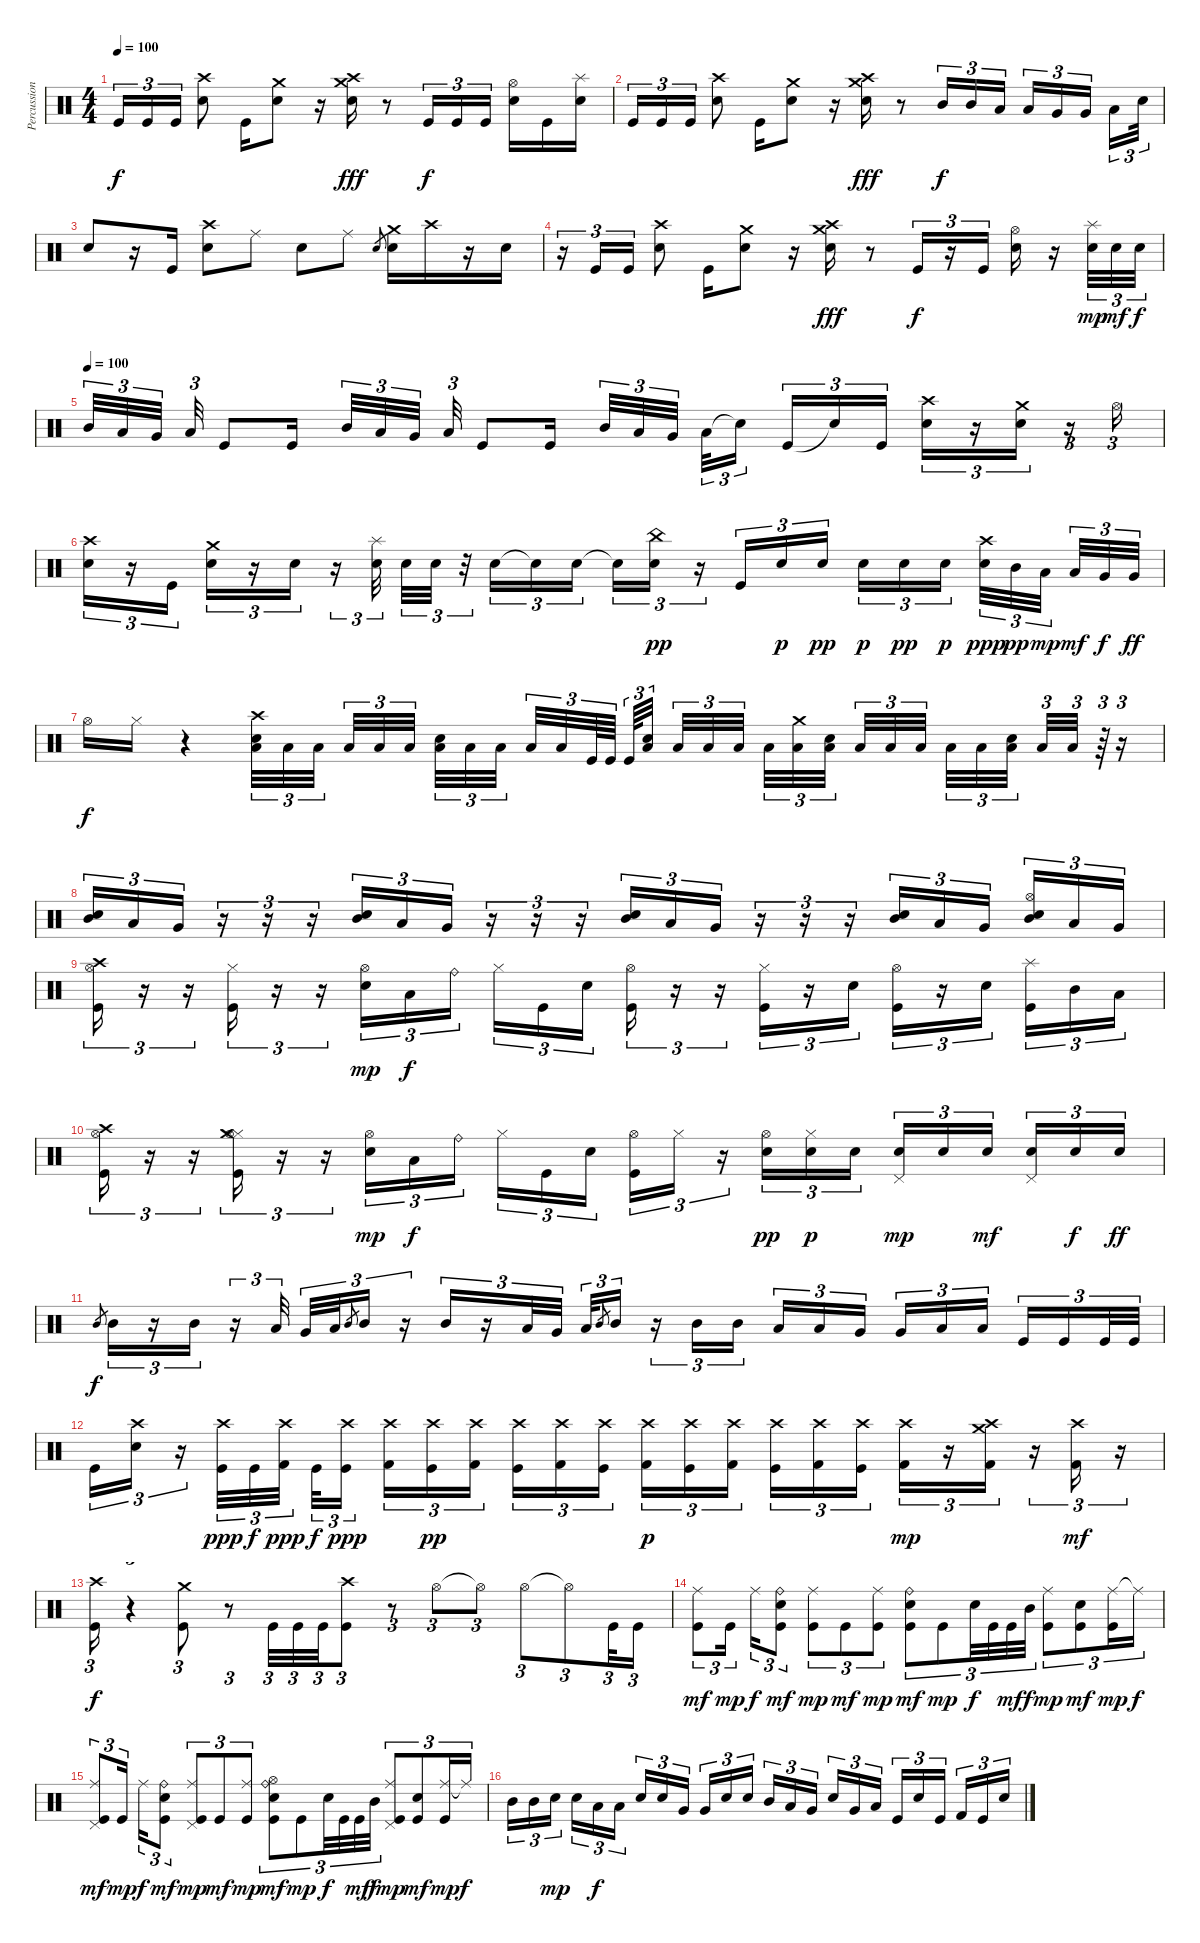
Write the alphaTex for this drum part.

\track ("Percussions" "Percussion") {instrument percussion}
\staff {score}
\articulation defaults
\ts (4 4)
\tempo 100
\clef neutral
\ks c "Kick (hit)".16{tu (3 2) dy f} "Kick (hit)".16{tu (3 2)} "Kick (hit)".16{tu (3 2)}
("Crash high (hit)" "Snare (hit) 2").8 "Kick (hit)".16 ("Crash medium (hit)" "Snare (hit) 2").8 r.16 ("Crash high (hit)" "Crash medium (hit)" "Snare (hit) 2").16{dy fff} r.8 "Kick (hit)".16{tu (3 2) dy f} "Kick (hit)".16{tu (3 2)} "Kick (hit)".16{tu (3 2)} ("Hi-Hat (open)" "Snare (hit) 2").16 "Kick (hit)".16 ("Splash (hit)" "Snare (hit) 2").16 |
"Kick (hit)".16{tu (3 2)} "Kick (hit)".16{tu (3 2)} "Kick (hit)".16{tu (3 2)} ("Crash high (hit)" "Snare (hit) 2").8 "Kick (hit)".16 ("Crash medium (hit)" "Snare (hit) 2").8 r.16 ("Crash high (hit)" "Crash medium (hit)" "Snare (hit) 2").16{dy fff} r.8 "Mid Tom (hit)".16{tu (3 2) dy f} "Mid Tom (hit)".16{tu (3 2)} "Low Tom (hit)".16{tu (3 2)} "Low Tom (hit)".16{tu (3 2)} "Very Low Tom (hit)".16{tu (3 2)} "Very Low Tom (hit)".16{tu (3 2)} "Low Floor Tom (hit)".16{tu (3 2)} "Snare (hit) 2".32{tu (3 2)} |
"Snare (hit) 2".8 r.16 "Kick (hit)".16 ("Crash high (hit)" "Snare (hit) 2").8 "Ride (middle)".8 "Snare (hit) 2".8 "Ride (middle)".8 "Snare (hit) 2".8{gr} ("Crash medium (hit)" "Snare (hit) 2").16 "Crash high (hit)".16 r.16 "Snare (hit) 2".16 |
r.16{tu (3 2)} "Kick (hit)".16{tu (3 2)} "Kick (hit)".16{tu (3 2)} ("Crash high (hit)" "Snare (hit) 2").8 "Kick (hit)".16 ("Crash medium (hit)" "Snare (hit) 2").8 r.16 ("Crash high (hit)" "Crash medium (hit)" "Snare (hit) 2").16{dy fff} r.8 "Kick (hit)".16{tu (3 2) dy f} r.16{tu (3 2)} "Kick (hit)".16{tu (3 2)} ("Hi-Hat (open)" "Snare (hit) 2").16 r.16 ("Splash (hit)" "Snare (hit) 2").32{tu (3 2) dy mp} "Snare (hit) 2".32{tu (3 2) dy mf} "Snare (hit) 2".32{tu (3 2) dy f} |
\tempo (100)
"Mid Tom (hit)".32{tu (3 2)} "Low Tom (hit)".32{tu (3 2)} "Very Low Tom (hit)".32{tu (3 2)} "Low Floor Tom (hit)".32{tu (3 2)} "Kick (hit)".8 "Kick (hit)".16 "Mid Tom (hit)".32{tu (3 2)} "Low Tom (hit)".32{tu (3 2)} "Very Low Tom (hit)".32{tu (3 2)} "Low Floor Tom (hit)".32{tu (3 2)} "Kick (hit)".8 "Kick (hit)".16 "Mid Tom (hit)".32{tu (3 2)} "Low Tom (hit)".32{tu (3 2)} "Very Low Tom (hit)".32{tu (3 2)} "Low Floor Tom (hit)".32{tu (3 2)} "Snare (hit)"{t}.16{tu (3 2)} "Kick (hit)".16{tu (3 2)} "Snare (hit)"{t}.16{tu (3 2)} "Kick (hit)".16{tu (3 2)} ("Crash high (hit)" "Snare (hit) 2").16{tu (3 2)} r.16{tu (3 2)} ("Crash medium (hit)" "Snare (hit) 2").16{tu (3 2)} r.16{tu (3 2)} "Hi-Hat (open)".16{tu (3 2)} |
("Crash high (hit)" "Snare (hit) 2").16{tu (3 2)} r.16{tu (3 2)} "Kick (hit)".16{tu (3 2)} ("Crash medium (hit)" "Snare (hit) 2").16{tu (3 2)} r.16{tu (3 2)} "Snare (hit) 2".16{tu (3 2)} r.16{tu (3 2)} ("Splash (hit)" "Snare (hit) 2").32{tu (3 2)} "Snare (hit) 2".32{tu (3 2)} "Snare (hit) 2".32{tu (3 2)} r.32{tu (3 2)} "Snare (hit) 2".16{tu (3 2)} "Snare (hit)"{t}.16{tu (3 2)} "Snare (hit) 2".16{tu (3 2)} "Snare (hit)"{t}.16{tu (3 2)} ("China (hit)" "Snare (hit) 2").16{tu (3 2) dy pp} r.16{tu (3 2)} "Kick (hit)".16{tu (3 2)} "Snare (hit) 2".16{tu (3 2) dy p} "Snare (hit) 2".16{tu (3 2) dy pp} "Snare (hit) 2".16{tu (3 2) dy p} "Snare (hit) 2".16{tu (3 2) dy pp} "Snare (hit) 2".16{tu (3 2) dy p} ("Crash high (hit)" "Snare (hit) 2").32{tu (3 2) dy ppp} "Mid Tom (hit)".32{tu (3 2) dy pp} "Low Tom (hit)".32{tu (3 2) dy mp} "Low Tom (hit)".32{tu (3 2) dy mf} "Very Low Tom (hit)".32{tu (3 2) dy f} "Very Low Tom (hit)".32{tu (3 2) dy ff} |
"Hi-Hat (open)".16{dy f} "Hi-Hat (closed)".16 r.4 ("Crash high (hit)" "Low Floor Tom (hit)" "Snare (hit) 2").32{tu (3 2)} "Low Floor Tom (hit)".32{tu (3 2)} "Low Floor Tom (hit)".32{tu (3 2)} "Low Floor Tom (hit)".32{tu (3 2)} "Low Floor Tom (hit)".32{tu (3 2)} "Low Floor Tom (hit)".32{tu (3 2)} ("Low Floor Tom (hit)" "Snare (hit) 2").32{tu (3 2)} "Low Floor Tom (hit)".32{tu (3 2)} "Low Floor Tom (hit)".32{tu (3 2)} "Low Floor Tom (hit)".32{tu (3 2)} "Low Floor Tom (hit)".32{tu (3 2)} "Kick (hit)".64{tu (3 2)} "Kick (hit)".64{tu (3 2)} "Kick (hit)".64{tu (3 2)} ("Low Floor Tom (hit)" "Snare (hit) 2").32{tu (3 2)} "Low Floor Tom (hit)".32{tu (3 2)} "Low Floor Tom (hit)".32{tu (3 2)} "Low Floor Tom (hit)".32{tu (3 2)} "Low Floor Tom (hit)".32{tu (3 2)} ("Crash medium (hit)" "Low Floor Tom (hit)").32{tu (3 2)} ("Low Floor Tom (hit)" "Snare (hit) 2").32{tu (3 2)} "Low Floor Tom (hit)".32{tu (3 2)} "Low Floor Tom (hit)".32{tu (3 2)} "Low Floor Tom (hit)".32{tu (3 2)} "Low Floor Tom (hit)".32{tu (3 2)} "Low Floor Tom (hit)".32{tu (3 2)} ("Low Floor Tom (hit)" "Snare (hit) 2").32{tu (3 2)} "Low Floor Tom (hit)".32{tu (3 2)} "Low Floor Tom (hit)".32{tu (3 2)} r.64{tu (3 2)} r.16{tu (3 2)} |
("Snare (hit) 2" "Mid Tom (hit)").16{tu (3 2)} "Low Tom (hit)".16{tu (3 2)} "Very Low Tom (hit)".16{tu (3 2)} r.16{tu (3 2)} r.16{tu (3 2)} r.16{tu (3 2)} ("Snare (hit) 2" "Mid Tom (hit)").16{tu (3 2)} "Low Tom (hit)".16{tu (3 2)} "Very Low Tom (hit)".16{tu (3 2)} r.16{tu (3 2)} r.16{tu (3 2)} r.16{tu (3 2)} ("Snare (hit) 2" "Mid Tom (hit)").16{tu (3 2)} "Low Tom (hit)".16{tu (3 2)} "Very Low Tom (hit)".16{tu (3 2)} r.16{tu (3 2)} r.16{tu (3 2)} r.16{tu (3 2)} ("Snare (hit) 2" "Mid Tom (hit)").16{tu (3 2)} "Low Tom (hit)".16{tu (3 2)} "Very Low Tom (hit)".16{tu (3 2)} ("Hi-Hat (open)" "Snare (hit) 2" "Mid Tom (hit)").16{tu (3 2)} "Low Tom (hit)".16{tu (3 2)} "Very Low Tom (hit)".16{tu (3 2)} |
("Hi-Hat (open)" "Crash high (hit)" "Kick (hit)").16{tu (3 2)} r.16{tu (3 2)} r.16{tu (3 2)} ("Hi-Hat (closed)" "Kick (hit)").16{tu (3 2)} r.16{tu (3 2)} r.16{tu (3 2)} ("Hi-Hat (open)" "Snare (hit) 2").16{tu (3 2) dy mp} "Low Tom (hit)".16{tu (3 2) dy f} "Ride (bell)".16{tu (3 2)} "Hi-Hat (closed)".16{tu (3 2)} "Kick (hit)".16{tu (3 2)} "Snare (hit) 2".16{tu (3 2)} ("Hi-Hat (open)" "Kick (hit)").16{tu (3 2)} r.16{tu (3 2)} r.16{tu (3 2)} ("Hi-Hat (closed)" "Kick (hit)").16{tu (3 2)} r.16{tu (3 2)} "Snare (hit) 2".16{tu (3 2)} ("Hi-Hat (open)" "Kick (hit)").16{tu (3 2)} r.16{tu (3 2)} "Snare (hit) 2".16{tu (3 2)} ("Splash (hit)" "Kick (hit)").16{tu (3 2)} "Mid Tom (hit)".16{tu (3 2)} "Low Tom (hit)".16{tu (3 2)} |
("Hi-Hat (open)" "Crash high (hit)" "Kick (hit)").16{tu (3 2)} r.16{tu (3 2)} r.16{tu (3 2)} ("Hi-Hat (closed)" "Crash medium (hit)" "Kick (hit)" "Hi-Hat (open)").16{tu (3 2)} r.16{tu (3 2)} r.16{tu (3 2)} ("Hi-Hat (open)" "Snare (hit) 2").16{tu (3 2) dy mp} "Low Tom (hit)".16{tu (3 2) dy f} "Ride (bell)".16{tu (3 2)} "Hi-Hat (closed)".16{tu (3 2)} "Kick (hit)".16{tu (3 2)} "Snare (hit) 2".16{tu (3 2)} ("Hi-Hat (open)" "Kick (hit)").16{tu (3 2)} "Hi-Hat (closed)".16{tu (3 2)} r.16{tu (3 2)} ("Hi-Hat (open)" "Snare (hit) 2").16{tu (3 2) dy pp} ("Hi-Hat (closed)" "Snare (hit) 2").16{tu (3 2) dy p} "Snare (hit) 2".16{tu (3 2)} ("Pedal Hi-Hat (hit)" "Snare (hit) 2").16{tu (3 2) dy mp} "Snare (hit) 2".16{tu (3 2)} "Snare (hit) 2".16{tu (3 2) dy mf} ("Pedal Hi-Hat (hit)" "Snare (hit) 2").16{tu (3 2)} "Snare (hit) 2".16{tu (3 2) dy f} "Snare (hit) 2".16{tu (3 2) dy ff} |
"Mid Tom (hit)".8{gr dy f} "Mid Tom (hit)".16{tu (3 2)} r.16{tu (3 2)} "Mid Tom (hit)".16{tu (3 2)} r.16{tu (3 2)} "Low Tom (hit)".32{tu (3 2)} "Very Low Tom (hit)".32{tu (3 2)} "Low Floor Tom (hit)".32{tu (3 2)} "Mid Tom (hit)".8{gr} "Mid Tom (hit)".16{tu (3 2)} r.16{tu (3 2)} "Mid Tom (hit)".16{tu (3 2)} r.16{tu (3 2)} "Low Tom (hit)".32{tu (3 2)} "Very Low Tom (hit)".32{tu (3 2)} "Low Floor Tom (hit)".32{tu (3 2)} "Mid Tom (hit)".8{gr} "Mid Tom (hit)".16{tu (3 2)} r.16{tu (3 2)} "Mid Tom (hit)".16{tu (3 2)} "Mid Tom (hit)".16{tu (3 2)} "Low Tom (hit)".16{tu (3 2)} "Low Tom (hit)".16{tu (3 2)} "Very Low Tom (hit)".16{tu (3 2)} "Very Low Tom (hit)".16{tu (3 2)} "Low Floor Tom (hit)".16{tu (3 2)} "Low Floor Tom (hit)".16{tu (3 2)} "Kick (hit)".16{tu (3 2)} "Kick (hit)".16{tu (3 2)} "Kick (hit)".32{tu (3 2)} "Kick (hit)".32{tu (3 2)} |
"Kick (hit)".16{tu (3 2)} ("Crash high (hit)" "Snare (hit) 2").16{tu (3 2)} r.16{tu (3 2)} ("Crash high (hit)" "Kick (hit)").32{tu (3 2) dy ppp} "Kick (hit)".32{tu (3 2) dy f} ("Crash high (hit)" "Kick (hit) 2").32{tu (3 2) dy ppp} "Kick (hit)".32{tu (3 2) dy f} ("Crash high (hit)" "Kick (hit)").16{tu (3 2) dy ppp} ("Crash high (hit)" "Kick (hit) 2").16{tu (3 2)} ("Crash high (hit)" "Kick (hit)").16{tu (3 2) dy pp} ("Crash high (hit)" "Kick (hit) 2").16{tu (3 2)} ("Crash high (hit)" "Kick (hit)").16{tu (3 2)} ("Crash high (hit)" "Kick (hit) 2").16{tu (3 2)} ("Crash high (hit)" "Kick (hit)").16{tu (3 2)} ("Crash high (hit)" "Kick (hit) 2").16{tu (3 2) dy p} ("Crash high (hit)" "Kick (hit)").16{tu (3 2)} ("Crash high (hit)" "Kick (hit) 2").16{tu (3 2)} ("Crash high (hit)" "Kick (hit)").16{tu (3 2)} ("Crash high (hit)" "Kick (hit) 2").16{tu (3 2)} ("Crash high (hit)" "Kick (hit)").16{tu (3 2)} ("Crash high (hit)" "Kick (hit) 2").16{tu (3 2) dy mp} r.16{tu (3 2)} ("Crash high (hit)" "Crash medium (hit)" "Kick (hit) 2").16{tu (3 2)} r.16{tu (3 2)} ("Crash high (hit)" "Kick (hit) 2").16{tu (3 2) dy mf} r.16{tu (3 2)} |
("Crash high (hit)" "Kick (hit)").16{tu (3 2) dy f} r.4{tu (3 2)} ("Crash medium (hit)" "Kick (hit)").8{tu (3 2)} r.8{tu (3 2)} "Kick (hit)".32{tu (3 2)} "Kick (hit)".32{tu (3 2)} "Kick (hit)".32{tu (3 2)} ("Crash high (hit)" "Kick (hit)").8{tu (3 2)} r.8{tu (3 2)} "Hi-Hat (open)".8{tu (3 2)} "Hi-Hat (open)"{t}.8{tu (3 2)} "Hi-Hat (open)".8{tu (3 2)} "Hi-Hat (open)"{t}.8{tu (3 2)} "Kick (hit)".32{tu (3 2)} "Kick (hit)".16{tu (3 2)} |
("Ride (middle)" "Kick (hit)").8{tu (3 2) dy mf} "Kick (hit)".16{tu (3 2) dy mp} "Ride (middle)".16{tu (3 2) dy f} ("Ride (bell)" "Snare (hit) 2" "Kick (hit)").8{tu (3 2) dy mf} ("Ride (middle)" "Kick (hit)").8{tu (3 2) dy mp} "Kick (hit)".8{tu (3 2) dy mf} ("Ride (middle)" "Kick (hit)").8{tu (3 2) dy mp} ("Ride (bell)" "Snare (hit) 2" "Kick (hit)").8{tu (3 2) dy mf} "Kick (hit)".8{tu (3 2) dy mp} "Snare (hit) 2".32{tu (3 2) dy f} "Kick (hit)".32{tu (3 2)} "Kick (hit)".32{tu (3 2) dy mf} "Mid Tom (hit)".32{tu (3 2) dy f} ("Ride (middle)" "Kick (hit)").8{tu (3 2) dy mp} ("Snare (hit) 2" "Kick (hit)").8{tu (3 2) dy mf} ("Ride (middle)" "Kick (hit)").16{tu (3 2) dy mp} "Ride (middle)"{t}.16{tu (3 2) dy f} |
("Ride (middle)" "Pedal Hi-Hat (hit)" "Kick (hit)").8{tu (3 2) dy mf} "Kick (hit)".16{tu (3 2) dy mp} "Ride (middle)".16{tu (3 2) dy f} ("Ride (bell)" "Snare (hit) 2" "Kick (hit)").8{tu (3 2) dy mf} ("Ride (middle)" "Pedal Hi-Hat (hit)" "Kick (hit)").8{tu (3 2) dy mp} "Kick (hit)".8{tu (3 2) dy mf} ("Ride (middle)" "Kick (hit)").8{tu (3 2) dy mp} ("Ride (bell)" "Hi-Hat (open)" "Snare (hit) 2" "Kick (hit)").8{tu (3 2) dy mf} "Kick (hit)".8{tu (3 2) dy mp} "Snare (hit) 2".32{tu (3 2) dy f} "Kick (hit)".32{tu (3 2)} "Kick (hit)".32{tu (3 2) dy mf} "Mid Tom (hit)".32{tu (3 2) dy f} ("Ride (middle)" "Pedal Hi-Hat (hit)" "Kick (hit)").8{tu (3 2) dy mp} ("Snare (hit) 2" "Kick (hit)").8{tu (3 2) dy mf} ("Ride (middle)" "Kick (hit)").16{tu (3 2) dy mp} "Ride (middle)"{t}.16{tu (3 2) dy f} |
"Mid Tom (hit)".16{tu (3 2)} "Mid Tom (hit)".16{tu (3 2)} "Snare (hit) 2".16{tu (3 2) dy mp} "Snare (hit) 2".16{tu (3 2)} "Low Tom (hit)".16{tu (3 2) dy f} "Low Tom (hit)".16{tu (3 2)} "Snare (hit) 2".16{tu (3 2)} "Snare (hit) 2".16{tu (3 2)} "Very Low Tom (hit)".16{tu (3 2)} "Very Low Tom (hit)".16{tu (3 2)} "Snare (hit) 2".16{tu (3 2)} "Snare (hit) 2".16{tu (3 2)} "Mid Tom (hit)".16{tu (3 2)} "Low Tom (hit)".16{tu (3 2)} "Very Low Tom (hit)".16{tu (3 2)} "Snare (hit) 2".16{tu (3 2)} "Very Low Tom (hit)".16{tu (3 2)} "Low Floor Tom (hit)".16{tu (3 2)} "Kick (hit)".16{tu (3 2)} "Snare (hit) 2".16{tu (3 2)} "Kick (hit)".16{tu (3 2)} "Kick (hit) 2".16{tu (3 2)} "Kick (hit)".16{tu (3 2)} "Snare (hit) 2".16{tu (3 2)}
